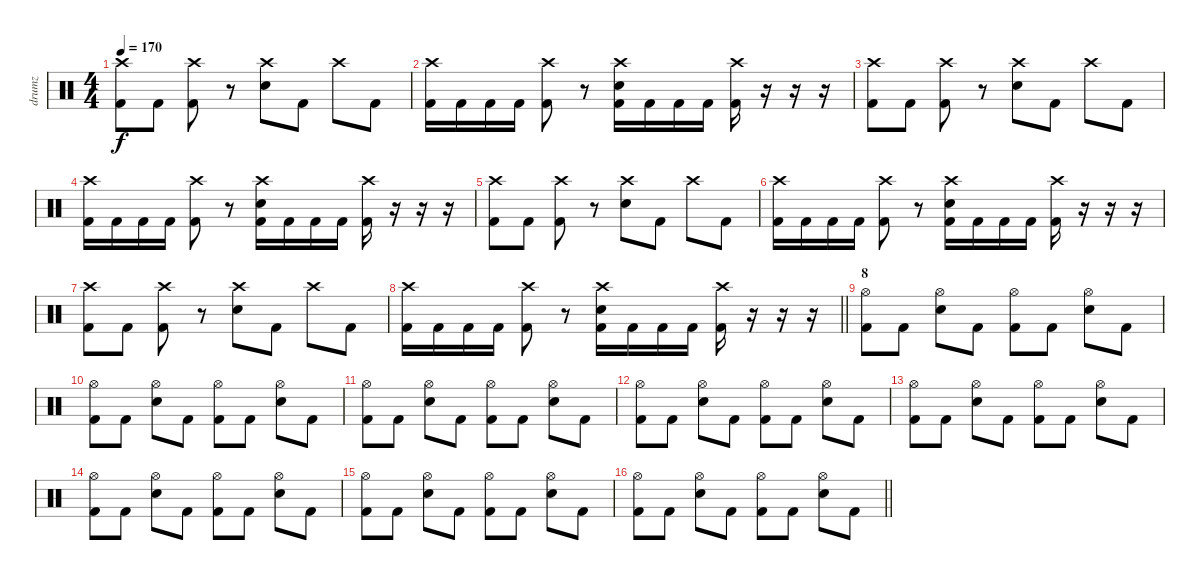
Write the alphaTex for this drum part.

\track ("drumz" "drumz") {instrument percussion}
\staff {score}
\articulation defaults
\ts (4 4)
\tempo 170
\clef neutral
\ks c
("Crash high (hit)" "Kick (hit) 2").8{dy f} "Kick (hit) 2".8 ("Crash high (hit)" "Kick (hit) 2").8 r.8 ("Crash high (hit)" "Electric Snare (hit)").8 "Kick (hit) 2".8 "Crash high (hit)".8 "Kick (hit) 2".8 |
("Crash high (hit)" "Kick (hit) 2").16 "Kick (hit) 2".16 "Kick (hit) 2".16 "Kick (hit) 2".16 ("Crash high (hit)" "Kick (hit) 2").8 r.8 ("Crash high (hit)" "Electric Snare (hit)" "Kick (hit) 2").16 "Kick (hit) 2".16 "Kick (hit) 2".16 "Kick (hit) 2".16 ("Crash high (hit)" "Kick (hit) 2").16 r.16 r.16 r.16 |
("Crash high (hit)" "Kick (hit) 2").8 "Kick (hit) 2".8 ("Crash high (hit)" "Kick (hit) 2").8 r.8 ("Crash high (hit)" "Electric Snare (hit)").8 "Kick (hit) 2".8 "Crash high (hit)".8 "Kick (hit) 2".8 |
("Crash high (hit)" "Kick (hit) 2").16 "Kick (hit) 2".16 "Kick (hit) 2".16 "Kick (hit) 2".16 ("Crash high (hit)" "Kick (hit) 2").8 r.8 ("Crash high (hit)" "Electric Snare (hit)" "Kick (hit) 2").16 "Kick (hit) 2".16 "Kick (hit) 2".16 "Kick (hit) 2".16 ("Crash high (hit)" "Kick (hit) 2").16 r.16 r.16 r.16 |
("Crash high (hit)" "Kick (hit) 2").8 "Kick (hit) 2".8 ("Crash high (hit)" "Kick (hit) 2").8 r.8 ("Crash high (hit)" "Electric Snare (hit)").8 "Kick (hit) 2".8 "Crash high (hit)".8 "Kick (hit) 2".8 |
("Crash high (hit)" "Kick (hit) 2").16 "Kick (hit) 2".16 "Kick (hit) 2".16 "Kick (hit) 2".16 ("Crash high (hit)" "Kick (hit) 2").8 r.8 ("Crash high (hit)" "Electric Snare (hit)" "Kick (hit) 2").16 "Kick (hit) 2".16 "Kick (hit) 2".16 "Kick (hit) 2".16 ("Crash high (hit)" "Kick (hit) 2").16 r.16 r.16 r.16 |
("Crash high (hit)" "Kick (hit) 2").8 "Kick (hit) 2".8 ("Crash high (hit)" "Kick (hit) 2").8 r.8 ("Crash high (hit)" "Electric Snare (hit)").8 "Kick (hit) 2".8 "Crash high (hit)".8 "Kick (hit) 2".8 |
\barLineRight lightlight
("Crash high (hit)" "Kick (hit) 2").16 "Kick (hit) 2".16 "Kick (hit) 2".16 "Kick (hit) 2".16 ("Crash high (hit)" "Kick (hit) 2").8 r.8 ("Crash high (hit)" "Electric Snare (hit)" "Kick (hit) 2").16 "Kick (hit) 2".16 "Kick (hit) 2".16 "Kick (hit) 2".16 ("Crash high (hit)" "Kick (hit) 2").16 r.16 r.16 r.16 |
\section ("" "8")
("Hi-Hat (open)" "Kick (hit) 2").8 "Kick (hit) 2".8 ("Hi-Hat (open)" "Electric Snare (hit)").8 "Kick (hit) 2".8 ("Hi-Hat (open)" "Kick (hit) 2").8 "Kick (hit) 2".8 ("Hi-Hat (open)" "Electric Snare (hit)").8 "Kick (hit) 2".8 |
("Hi-Hat (open)" "Kick (hit) 2").8 "Kick (hit) 2".8 ("Hi-Hat (open)" "Electric Snare (hit)").8 "Kick (hit) 2".8 ("Hi-Hat (open)" "Kick (hit) 2").8 "Kick (hit) 2".8 ("Hi-Hat (open)" "Electric Snare (hit)").8 "Kick (hit) 2".8 |
("Hi-Hat (open)" "Kick (hit) 2").8 "Kick (hit) 2".8 ("Hi-Hat (open)" "Electric Snare (hit)").8 "Kick (hit) 2".8 ("Hi-Hat (open)" "Kick (hit) 2").8 "Kick (hit) 2".8 ("Hi-Hat (open)" "Electric Snare (hit)").8 "Kick (hit) 2".8 |
("Hi-Hat (open)" "Kick (hit) 2").8 "Kick (hit) 2".8 ("Hi-Hat (open)" "Electric Snare (hit)").8 "Kick (hit) 2".8 ("Hi-Hat (open)" "Kick (hit) 2").8 "Kick (hit) 2".8 ("Hi-Hat (open)" "Electric Snare (hit)").8 "Kick (hit) 2".8 |
("Hi-Hat (open)" "Kick (hit) 2").8 "Kick (hit) 2".8 ("Hi-Hat (open)" "Electric Snare (hit)").8 "Kick (hit) 2".8 ("Hi-Hat (open)" "Kick (hit) 2").8 "Kick (hit) 2".8 ("Hi-Hat (open)" "Electric Snare (hit)").8 "Kick (hit) 2".8 |
("Hi-Hat (open)" "Kick (hit) 2").8 "Kick (hit) 2".8 ("Hi-Hat (open)" "Electric Snare (hit)").8 "Kick (hit) 2".8 ("Hi-Hat (open)" "Kick (hit) 2").8 "Kick (hit) 2".8 ("Hi-Hat (open)" "Electric Snare (hit)").8 "Kick (hit) 2".8 |
("Hi-Hat (open)" "Kick (hit) 2").8 "Kick (hit) 2".8 ("Hi-Hat (open)" "Electric Snare (hit)").8 "Kick (hit) 2".8 ("Hi-Hat (open)" "Kick (hit) 2").8 "Kick (hit) 2".8 ("Hi-Hat (open)" "Electric Snare (hit)").8 "Kick (hit) 2".8 |
\barLineRight lightlight
("Hi-Hat (open)" "Kick (hit) 2").8 "Kick (hit) 2".8 ("Hi-Hat (open)" "Electric Snare (hit)").8 "Kick (hit) 2".8 ("Hi-Hat (open)" "Kick (hit) 2").8 "Kick (hit) 2".8 ("Hi-Hat (open)" "Electric Snare (hit)").8 "Kick (hit) 2".8
